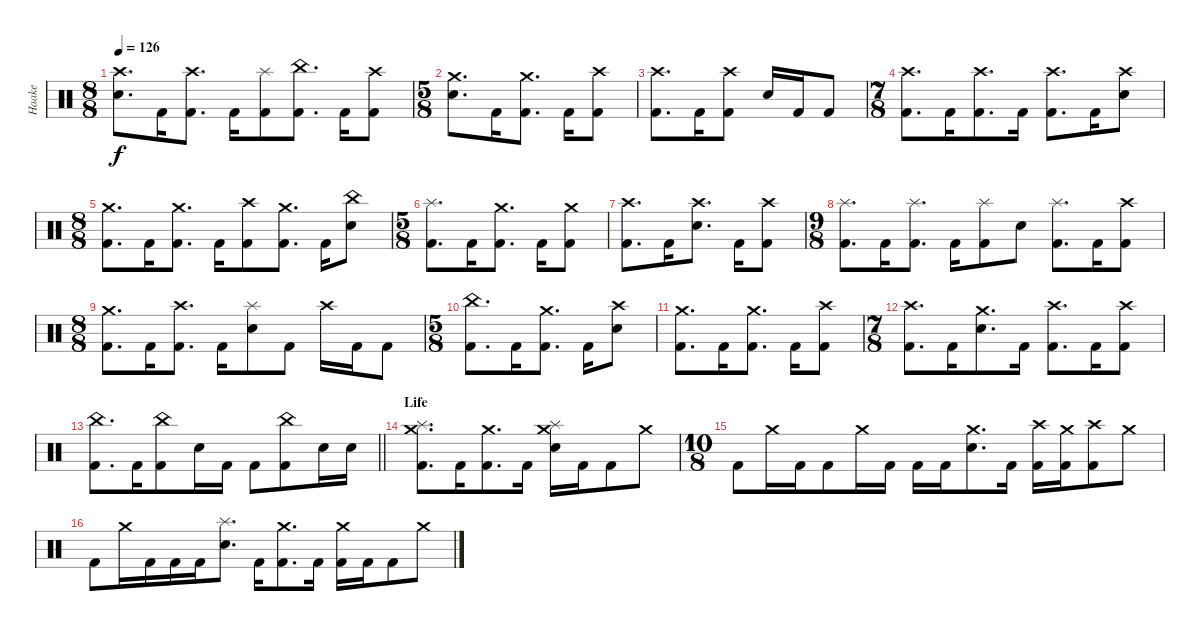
\track ("Haake" "Haake") {instrument percussion}
\staff {score}
\articulation defaults
\ts (8 8)
\tempo 126
\clef neutral
\ks c
("Crash high (hit)" "Electric Snare (hit)").8{d dy f} "Kick (hit) 2".16 ("Crash high (hit)" "Kick (hit) 2").8{d} "Kick (hit) 2".16 ("Splash (hit)" "Kick (hit) 2").8 ("China (hit)" "Kick (hit) 2").8{d} "Kick (hit) 2".16 ("Crash high (hit)" "Kick (hit) 2").8 |
\ts (5 8)
("Crash medium (hit)" "Electric Snare (hit)").8{d} "Kick (hit) 2".16 ("Crash medium (hit)" "Kick (hit) 2").8{d} "Kick (hit) 2".16 ("Crash high (hit)" "Kick (hit) 2").8 |
("Crash high (hit)" "Kick (hit) 2").8{d} "Kick (hit) 2".16 ("Crash high (hit)" "Kick (hit) 2").8 "Electric Snare (hit)".16 "Kick (hit) 2".16 "Kick (hit) 2".8 |
\ts (7 8)
("Crash high (hit)" "Kick (hit) 2").8{d} "Kick (hit) 2".16 ("Crash high (hit)" "Kick (hit) 2").8{d} "Kick (hit) 2".16 ("Crash high (hit)" "Kick (hit) 2").8{d} "Kick (hit) 2".16 ("Crash high (hit)" "Electric Snare (hit)").8 |
\ts (8 8)
("Crash medium (hit)" "Kick (hit) 2").8{d} "Kick (hit) 2".16 ("Crash medium (hit)" "Kick (hit) 2").8{d} "Kick (hit) 2".16 ("Crash high (hit)" "Kick (hit) 2").8 ("Crash medium (hit)" "Kick (hit) 2").8{d} "Kick (hit) 2".16 ("China (hit)" "Electric Snare (hit)").8 |
\ts (5 8)
("Splash (hit)" "Kick (hit) 2").8{d} "Kick (hit) 2".16 ("Crash medium (hit)" "Kick (hit) 2").8{d} "Kick (hit) 2".16 ("Crash medium (hit)" "Kick (hit) 2").8 |
("Crash high (hit)" "Kick (hit) 2").8{d} "Kick (hit) 2".16 ("Crash high (hit)" "Electric Snare (hit)").8{d} "Kick (hit) 2".16 ("Crash high (hit)" "Kick (hit) 2").8 |
\ts (9 8)
("Splash (hit)" "Kick (hit) 2").8{d} "Kick (hit) 2".16 ("Splash (hit)" "Kick (hit) 2").8{d} "Kick (hit) 2".16 ("Splash (hit)" "Kick (hit) 2").8 "Electric Snare (hit)".8 ("Splash (hit)" "Kick (hit) 2").8{d} "Kick (hit) 2".16 ("Crash high (hit)" "Kick (hit) 2").8 |
\ts (8 8)
("Crash medium (hit)" "Kick (hit) 2").8{d} "Kick (hit) 2".16 ("Crash high (hit)" "Kick (hit) 2").8{d} "Kick (hit) 2".16 ("Splash (hit)" "Electric Snare (hit)").8 "Kick (hit) 2".8 "Crash high (hit)".16 "Kick (hit) 2".16 "Kick (hit) 2".8 |
\ts (5 8)
("China (hit)" "Kick (hit) 2").8{d} "Kick (hit) 2".16 ("Crash medium (hit)" "Kick (hit) 2").8{d} "Kick (hit) 2".16 ("Crash high (hit)" "Electric Snare (hit)").8 |
("Crash medium (hit)" "Kick (hit) 2").8{d} "Kick (hit) 2".16 ("Crash medium (hit)" "Kick (hit) 2").8{d} "Kick (hit) 2".16 ("Crash high (hit)" "Kick (hit) 2").8 |
\ts (7 8)
("Crash high (hit)" "Kick (hit) 2").8{d} "Kick (hit) 2".16 ("Crash medium (hit)" "Electric Snare (hit)").8{d} "Kick (hit) 2".16 ("Crash high (hit)" "Kick (hit) 2").8{d} "Kick (hit) 2".16 ("Crash high (hit)" "Kick (hit) 2").8 |
\barLineRight lightlight
("China (hit)" "Kick (hit) 2").8{d} "Kick (hit) 2".16 ("China (hit)" "Kick (hit) 2").8 "Electric Snare (hit)".16 "Kick (hit) 2".16 "Kick (hit) 2".8 ("China (hit)" "Kick (hit) 2").8 "Electric Snare (hit)".16 "Electric Snare (hit)".16 |
\section ("" "Life")
("Crash medium (hit)" "Splash (hit)" "Kick (hit) 2").8{d} "Kick (hit) 2".16 ("Crash medium (hit)" "Kick (hit) 2").8{d} "Kick (hit) 2".16 ("Crash medium (hit)" "Electric Snare (hit)" "Splash (hit)").16 "Kick (hit) 2".16 "Kick (hit) 2".8 "Crash medium (hit)".8 |
\ts (10 8)
"Kick (hit) 2".8 "Crash medium (hit)".16 "Kick (hit) 2".16 "Kick (hit) 2".8 "Crash medium (hit)".16 "Kick (hit) 2".16 "Kick (hit) 2".16 "Kick (hit) 2".16 ("Crash medium (hit)" "Electric Snare (hit)").8{d} "Kick (hit) 2".16 ("Crash high (hit)" "Kick (hit) 2").16 ("Crash medium (hit)" "Kick (hit) 2").16 ("Crash high (hit)" "Kick (hit) 2").8 "Crash medium (hit)".8 |
"Kick (hit) 2".8 "Crash medium (hit)".16 "Kick (hit) 2".16 "Kick (hit) 2".16 "Kick (hit) 2".16 ("Splash (hit)" "Electric Snare (hit)").8{d} "Kick (hit) 2".16 ("Crash medium (hit)" "Kick (hit) 2").8{d} "Kick (hit) 2".16 ("Crash medium (hit)" "Kick (hit) 2").16 "Kick (hit) 2".16 "Kick (hit) 2".8 "Crash medium (hit)".8
